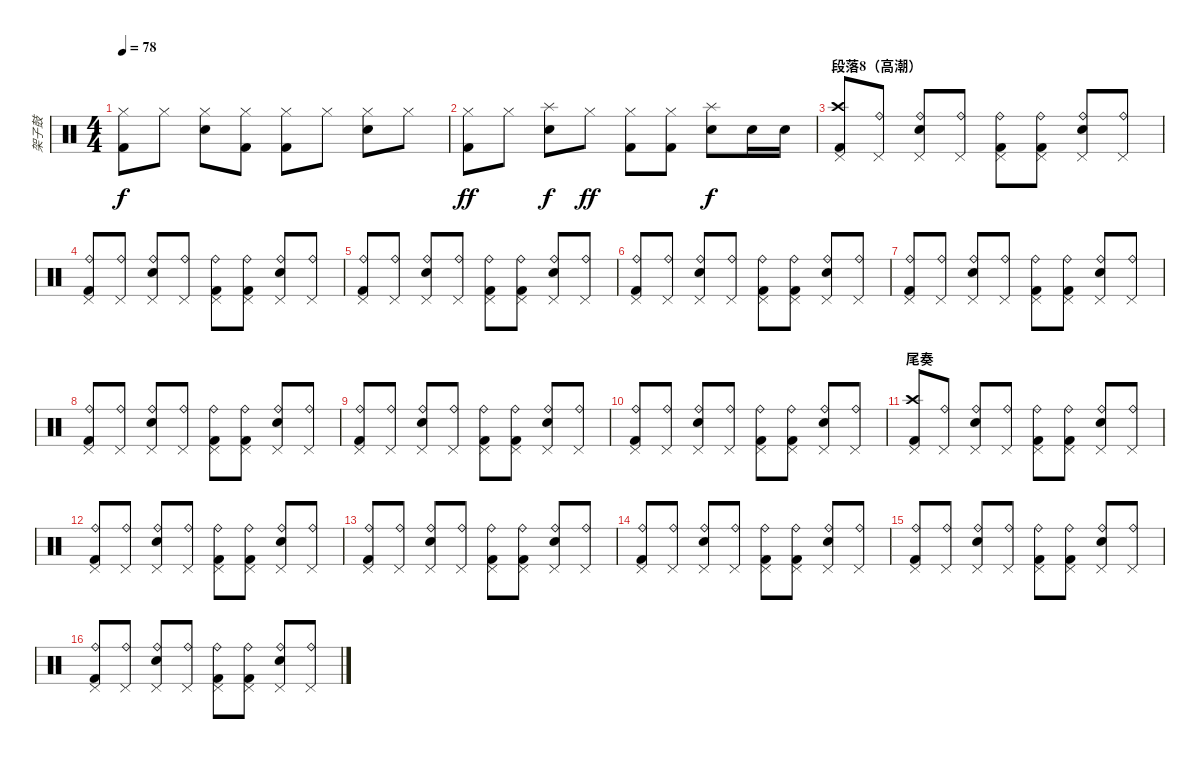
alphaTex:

\track ("架子鼓" "架子鼓") {instrument percussion}
\staff {score}
\articulation defaults
\ts (4 4)
\tempo 78
\clef neutral
\ks c
("Hi-Hat (closed)" "Kick (hit) 2").8{dy f} "Hi-Hat (closed)".8 ("Hi-Hat (closed)" "Electric Snare (hit)").8 ("Hi-Hat (closed)" "Kick (hit) 2").8 ("Hi-Hat (closed)" "Kick (hit) 2").8 "Hi-Hat (closed)".8 ("Hi-Hat (closed)" "Electric Snare (hit)").8 "Hi-Hat (closed)".8 |
("Hi-Hat (closed)" "Kick (hit) 2").8{dy ff} "Hi-Hat (closed)".8 ("Splash (hit)" "Electric Snare (hit)").8{dy f} "Hi-Hat (closed)".8{dy ff} ("Hi-Hat (closed)" "Kick (hit) 2").8 ("Hi-Hat (closed)" "Kick (hit) 2").8 ("Splash (hit)" "Electric Snare (hit)").8{dy f} "Electric Snare (hit)".16 "Electric Snare (hit)".16 |
\section ("" "段落8（高潮）")
("Crash high (hit)" "Pedal Hi-Hat (hit)" "Kick (hit) 2").8 ("Ride (bell)" "Pedal Hi-Hat (hit)").8 ("Ride (bell)" "Pedal Hi-Hat (hit)" "Electric Snare (hit)").8 ("Ride (bell)" "Pedal Hi-Hat (hit)").8 ("Ride (bell)" "Pedal Hi-Hat (hit)" "Kick (hit) 2").8 ("Ride (bell)" "Pedal Hi-Hat (hit)" "Kick (hit) 2").8 ("Ride (bell)" "Pedal Hi-Hat (hit)" "Electric Snare (hit)").8 ("Ride (bell)" "Pedal Hi-Hat (hit)").8 |
("Ride (bell)" "Pedal Hi-Hat (hit)" "Kick (hit) 2").8 ("Ride (bell)" "Pedal Hi-Hat (hit)").8 ("Ride (bell)" "Pedal Hi-Hat (hit)" "Electric Snare (hit)").8 ("Ride (bell)" "Pedal Hi-Hat (hit)").8 ("Ride (bell)" "Pedal Hi-Hat (hit)" "Kick (hit) 2").8 ("Ride (bell)" "Pedal Hi-Hat (hit)" "Kick (hit) 2").8 ("Ride (bell)" "Pedal Hi-Hat (hit)" "Electric Snare (hit)").8 ("Ride (bell)" "Pedal Hi-Hat (hit)").8 |
("Ride (bell)" "Pedal Hi-Hat (hit)" "Kick (hit) 2").8 ("Ride (bell)" "Pedal Hi-Hat (hit)").8 ("Ride (bell)" "Pedal Hi-Hat (hit)" "Electric Snare (hit)").8 ("Ride (bell)" "Pedal Hi-Hat (hit)").8 ("Ride (bell)" "Pedal Hi-Hat (hit)" "Kick (hit) 2").8 ("Ride (bell)" "Pedal Hi-Hat (hit)" "Kick (hit) 2").8 ("Ride (bell)" "Pedal Hi-Hat (hit)" "Electric Snare (hit)").8 ("Ride (bell)" "Pedal Hi-Hat (hit)").8 |
("Ride (bell)" "Pedal Hi-Hat (hit)" "Kick (hit) 2").8 ("Ride (bell)" "Pedal Hi-Hat (hit)").8 ("Ride (bell)" "Pedal Hi-Hat (hit)" "Electric Snare (hit)").8 ("Ride (bell)" "Pedal Hi-Hat (hit)").8 ("Ride (bell)" "Pedal Hi-Hat (hit)" "Kick (hit) 2").8 ("Ride (bell)" "Pedal Hi-Hat (hit)" "Kick (hit) 2").8 ("Ride (bell)" "Pedal Hi-Hat (hit)" "Electric Snare (hit)").8 ("Ride (bell)" "Pedal Hi-Hat (hit)").8 |
("Ride (bell)" "Pedal Hi-Hat (hit)" "Kick (hit) 2").8 ("Ride (bell)" "Pedal Hi-Hat (hit)").8 ("Ride (bell)" "Pedal Hi-Hat (hit)" "Electric Snare (hit)").8 ("Ride (bell)" "Pedal Hi-Hat (hit)").8 ("Ride (bell)" "Pedal Hi-Hat (hit)" "Kick (hit) 2").8 ("Ride (bell)" "Pedal Hi-Hat (hit)" "Kick (hit) 2").8 ("Ride (bell)" "Pedal Hi-Hat (hit)" "Electric Snare (hit)").8 ("Ride (bell)" "Pedal Hi-Hat (hit)").8 |
("Ride (bell)" "Pedal Hi-Hat (hit)" "Kick (hit) 2").8 ("Ride (bell)" "Pedal Hi-Hat (hit)").8 ("Ride (bell)" "Pedal Hi-Hat (hit)" "Electric Snare (hit)").8 ("Ride (bell)" "Pedal Hi-Hat (hit)").8 ("Ride (bell)" "Pedal Hi-Hat (hit)" "Kick (hit) 2").8 ("Ride (bell)" "Pedal Hi-Hat (hit)" "Kick (hit) 2").8 ("Ride (bell)" "Pedal Hi-Hat (hit)" "Electric Snare (hit)").8 ("Ride (bell)" "Pedal Hi-Hat (hit)").8 |
("Ride (bell)" "Pedal Hi-Hat (hit)" "Kick (hit) 2").8 ("Ride (bell)" "Pedal Hi-Hat (hit)").8 ("Ride (bell)" "Pedal Hi-Hat (hit)" "Electric Snare (hit)").8 ("Ride (bell)" "Pedal Hi-Hat (hit)").8 ("Ride (bell)" "Pedal Hi-Hat (hit)" "Kick (hit) 2").8 ("Ride (bell)" "Pedal Hi-Hat (hit)" "Kick (hit) 2").8 ("Ride (bell)" "Pedal Hi-Hat (hit)" "Electric Snare (hit)").8 ("Ride (bell)" "Pedal Hi-Hat (hit)").8 |
("Ride (bell)" "Pedal Hi-Hat (hit)" "Kick (hit) 2").8 ("Ride (bell)" "Pedal Hi-Hat (hit)").8 ("Ride (bell)" "Pedal Hi-Hat (hit)" "Electric Snare (hit)").8 ("Ride (bell)" "Pedal Hi-Hat (hit)").8 ("Ride (bell)" "Pedal Hi-Hat (hit)" "Kick (hit) 2").8 ("Ride (bell)" "Pedal Hi-Hat (hit)" "Kick (hit) 2").8 ("Ride (bell)" "Pedal Hi-Hat (hit)" "Electric Snare (hit)").8 ("Ride (bell)" "Pedal Hi-Hat (hit)").8 |
\section ("" "尾奏")
("Crash high (hit)" "Pedal Hi-Hat (hit)" "Kick (hit) 2").8 ("Ride (bell)" "Pedal Hi-Hat (hit)").8 ("Ride (bell)" "Pedal Hi-Hat (hit)" "Electric Snare (hit)").8 ("Ride (bell)" "Pedal Hi-Hat (hit)").8 ("Ride (bell)" "Pedal Hi-Hat (hit)" "Kick (hit) 2").8 ("Ride (bell)" "Pedal Hi-Hat (hit)" "Kick (hit) 2").8 ("Ride (bell)" "Pedal Hi-Hat (hit)" "Electric Snare (hit)").8 ("Ride (bell)" "Pedal Hi-Hat (hit)").8 |
("Ride (bell)" "Pedal Hi-Hat (hit)" "Kick (hit) 2").8 ("Ride (bell)" "Pedal Hi-Hat (hit)").8 ("Ride (bell)" "Pedal Hi-Hat (hit)" "Electric Snare (hit)").8 ("Ride (bell)" "Pedal Hi-Hat (hit)").8 ("Ride (bell)" "Pedal Hi-Hat (hit)" "Kick (hit) 2").8 ("Ride (bell)" "Pedal Hi-Hat (hit)" "Kick (hit) 2").8 ("Ride (bell)" "Pedal Hi-Hat (hit)" "Electric Snare (hit)").8 ("Ride (bell)" "Pedal Hi-Hat (hit)").8 |
("Ride (bell)" "Pedal Hi-Hat (hit)" "Kick (hit) 2").8 ("Ride (bell)" "Pedal Hi-Hat (hit)").8 ("Ride (bell)" "Pedal Hi-Hat (hit)" "Electric Snare (hit)").8 ("Ride (bell)" "Pedal Hi-Hat (hit)").8 ("Ride (bell)" "Pedal Hi-Hat (hit)" "Kick (hit) 2").8 ("Ride (bell)" "Pedal Hi-Hat (hit)" "Kick (hit) 2").8 ("Ride (bell)" "Pedal Hi-Hat (hit)" "Electric Snare (hit)").8 ("Ride (bell)" "Pedal Hi-Hat (hit)").8 |
("Ride (bell)" "Pedal Hi-Hat (hit)" "Kick (hit) 2").8 ("Ride (bell)" "Pedal Hi-Hat (hit)").8 ("Ride (bell)" "Pedal Hi-Hat (hit)" "Electric Snare (hit)").8 ("Ride (bell)" "Pedal Hi-Hat (hit)").8 ("Ride (bell)" "Pedal Hi-Hat (hit)" "Kick (hit) 2").8 ("Ride (bell)" "Pedal Hi-Hat (hit)" "Kick (hit) 2").8 ("Ride (bell)" "Pedal Hi-Hat (hit)" "Electric Snare (hit)").8 ("Ride (bell)" "Pedal Hi-Hat (hit)").8 |
("Ride (bell)" "Pedal Hi-Hat (hit)" "Kick (hit) 2").8 ("Ride (bell)" "Pedal Hi-Hat (hit)").8 ("Ride (bell)" "Pedal Hi-Hat (hit)" "Electric Snare (hit)").8 ("Ride (bell)" "Pedal Hi-Hat (hit)").8 ("Ride (bell)" "Pedal Hi-Hat (hit)" "Kick (hit) 2").8 ("Ride (bell)" "Pedal Hi-Hat (hit)" "Kick (hit) 2").8 ("Ride (bell)" "Pedal Hi-Hat (hit)" "Electric Snare (hit)").8 ("Ride (bell)" "Pedal Hi-Hat (hit)").8 |
("Ride (bell)" "Pedal Hi-Hat (hit)" "Kick (hit) 2").8 ("Ride (bell)" "Pedal Hi-Hat (hit)").8 ("Ride (bell)" "Pedal Hi-Hat (hit)" "Electric Snare (hit)").8 ("Ride (bell)" "Pedal Hi-Hat (hit)").8 ("Ride (bell)" "Pedal Hi-Hat (hit)" "Kick (hit) 2").8 ("Ride (bell)" "Pedal Hi-Hat (hit)" "Kick (hit) 2").8 ("Ride (bell)" "Pedal Hi-Hat (hit)" "Electric Snare (hit)").8 ("Ride (bell)" "Pedal Hi-Hat (hit)").8
